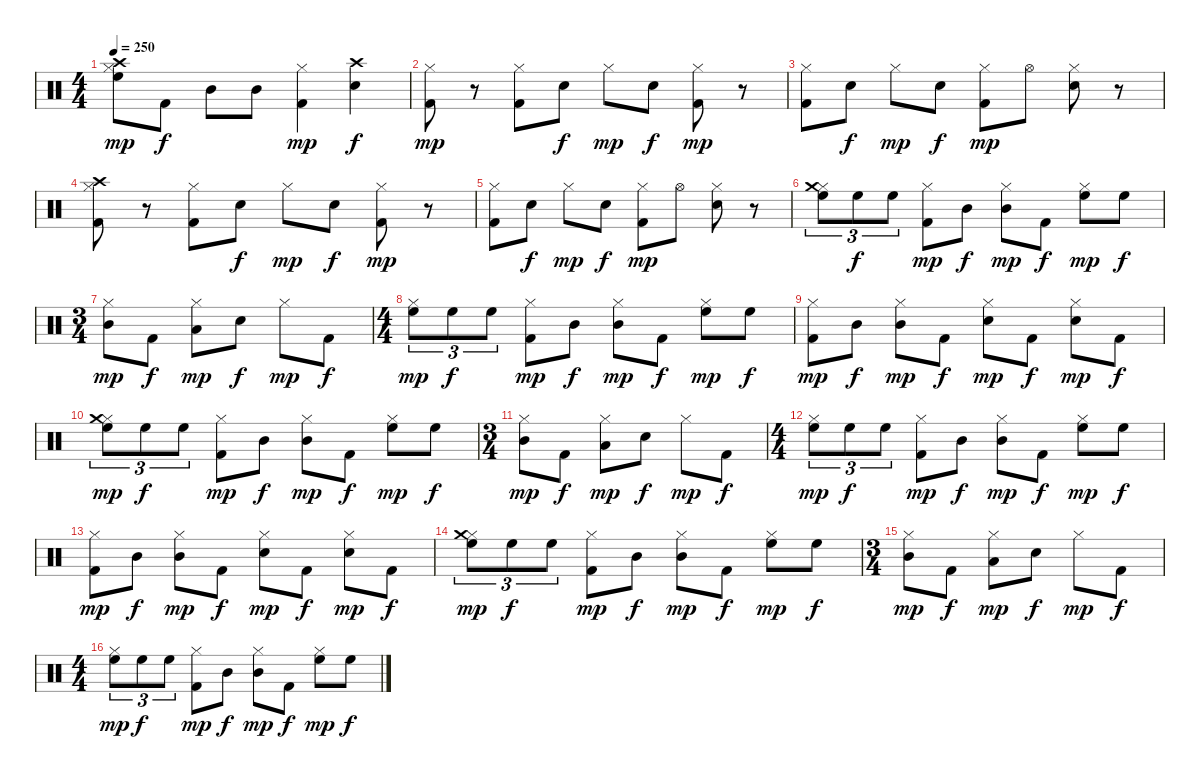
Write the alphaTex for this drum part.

\track "" {instrument percussion}
\staff {score}
\articulation defaults
\ts (4 4)
\tempo 250
\clef neutral
\ks c
("Hi-Hat (closed)" "High Floor Tom (hit)" "Crash high (hit)").8{dy mp} "Kick (hit) 2".8{dy f balance 8} "Mid Tom (hit)".8 "Mid Tom (hit)".8 ("Hi-Hat (closed)" "Kick (hit) 2").4{dy mp} ("Electric Snare (hit)" "Crash high (hit)").4{dy f} |
("Kick (hit) 2" "Hi-Hat (closed)").8{dy mp} r.8 ("Kick (hit) 2" "Hi-Hat (closed)").8 "Electric Snare (hit)".8{dy f} "Hi-Hat (closed)".8{dy mp} "Electric Snare (hit)".8{dy f} ("Kick (hit) 2" "Hi-Hat (closed)").8{dy mp} r.8 |
("Kick (hit) 2" "Hi-Hat (closed)").8 "Electric Snare (hit)".8{dy f} "Hi-Hat (closed)".8{dy mp} "Electric Snare (hit)".8{dy f} ("Kick (hit) 2" "Hi-Hat (closed)").8{dy mp} "Hi-Hat (open)".8 ("Electric Snare (hit)" "Hi-Hat (closed)").8 r.8 |
("Kick (hit) 2" "Hi-Hat (closed)" "Crash high (hit)").8 r.8 ("Kick (hit) 2" "Hi-Hat (closed)").8 "Electric Snare (hit)".8{dy f} "Hi-Hat (closed)".8{dy mp} "Electric Snare (hit)".8{dy f} ("Kick (hit) 2" "Hi-Hat (closed)").8{dy mp} r.8 |
("Kick (hit) 2" "Hi-Hat (closed)").8 "Electric Snare (hit)".8{dy f} "Hi-Hat (closed)".8{dy mp} "Electric Snare (hit)".8{dy f} ("Kick (hit) 2" "Hi-Hat (closed)").8{dy mp} "Hi-Hat (open)".8 ("Electric Snare (hit)" "Hi-Hat (closed)").8 r.8 |
("Hi-Hat (closed)" "High Floor Tom (hit)" "Crash medium (hit)").8{tu (3 2) balance 14} "High Floor Tom (hit)".8{tu (3 2) dy f} "High Floor Tom (hit)".8{tu (3 2)} ("Hi-Hat (closed)" "Kick (hit) 2").8{dy mp balance 8} "Mid Tom (hit)".8{dy f} ("Hi-Hat (closed)" "Mid Tom (hit)").8{dy mp} "Kick (hit) 2".8{dy f} ("Hi-Hat (closed)" "High Floor Tom (hit)").8{dy mp balance 14} "High Floor Tom (hit)".8{dy f} |
\ts (3 4)
("Hi-Hat (closed)" "Mid Tom (hit)").8{dy mp balance 8} "Kick (hit) 2".8{dy f} ("Hi-Hat (closed)" "Low Tom (hit)").8{dy mp balance 2} "Electric Snare (hit)".8{dy f balance 8} "Hi-Hat (closed)".8{dy mp} "Kick (hit) 2".8{dy f} |
\ts (4 4)
("Hi-Hat (closed)" "High Floor Tom (hit)").8{tu (3 2) dy mp balance 14} "High Floor Tom (hit)".8{tu (3 2) dy f} "High Floor Tom (hit)".8{tu (3 2)} ("Hi-Hat (closed)" "Kick (hit) 2").8{dy mp balance 8} "Mid Tom (hit)".8{dy f} ("Hi-Hat (closed)" "Mid Tom (hit)").8{dy mp} "Kick (hit) 2".8{dy f} ("Hi-Hat (closed)" "High Floor Tom (hit)").8{dy mp balance 14} "High Floor Tom (hit)".8{dy f} |
("Hi-Hat (closed)" "Kick (hit) 2").8{dy mp balance 8} "Mid Tom (hit)".8{dy f} ("Hi-Hat (closed)" "Mid Tom (hit)").8{dy mp} "Kick (hit) 2".8{dy f} ("Hi-Hat (closed)" "Electric Snare (hit)").8{dy mp} "Kick (hit) 2".8{dy f} ("Hi-Hat (closed)" "Electric Snare (hit)").8{dy mp} "Kick (hit) 2".8{dy f} |
("Hi-Hat (closed)" "High Floor Tom (hit)" "Crash medium (hit)").8{tu (3 2) dy mp balance 14} "High Floor Tom (hit)".8{tu (3 2) dy f} "High Floor Tom (hit)".8{tu (3 2)} ("Hi-Hat (closed)" "Kick (hit) 2").8{dy mp balance 8} "Mid Tom (hit)".8{dy f} ("Hi-Hat (closed)" "Mid Tom (hit)").8{dy mp} "Kick (hit) 2".8{dy f} ("Hi-Hat (closed)" "High Floor Tom (hit)").8{dy mp balance 14} "High Floor Tom (hit)".8{dy f} |
\ts (3 4)
("Hi-Hat (closed)" "Mid Tom (hit)").8{dy mp balance 8} "Kick (hit) 2".8{dy f} ("Hi-Hat (closed)" "Low Tom (hit)").8{dy mp balance 2} "Electric Snare (hit)".8{dy f balance 8} "Hi-Hat (closed)".8{dy mp} "Kick (hit) 2".8{dy f} |
\ts (4 4)
("Hi-Hat (closed)" "High Floor Tom (hit)").8{tu (3 2) dy mp balance 14} "High Floor Tom (hit)".8{tu (3 2) dy f} "High Floor Tom (hit)".8{tu (3 2)} ("Hi-Hat (closed)" "Kick (hit) 2").8{dy mp balance 8} "Mid Tom (hit)".8{dy f} ("Hi-Hat (closed)" "Mid Tom (hit)").8{dy mp} "Kick (hit) 2".8{dy f} ("Hi-Hat (closed)" "High Floor Tom (hit)").8{dy mp balance 14} "High Floor Tom (hit)".8{dy f} |
("Hi-Hat (closed)" "Kick (hit) 2").8{dy mp balance 8} "Mid Tom (hit)".8{dy f} ("Hi-Hat (closed)" "Mid Tom (hit)").8{dy mp} "Kick (hit) 2".8{dy f} ("Hi-Hat (closed)" "Electric Snare (hit)").8{dy mp} "Kick (hit) 2".8{dy f} ("Hi-Hat (closed)" "Electric Snare (hit)").8{dy mp} "Kick (hit) 2".8{dy f} |
("Hi-Hat (closed)" "High Floor Tom (hit)" "Crash medium (hit)").8{tu (3 2) dy mp balance 14} "High Floor Tom (hit)".8{tu (3 2) dy f} "High Floor Tom (hit)".8{tu (3 2)} ("Hi-Hat (closed)" "Kick (hit) 2").8{dy mp balance 8} "Mid Tom (hit)".8{dy f} ("Hi-Hat (closed)" "Mid Tom (hit)").8{dy mp} "Kick (hit) 2".8{dy f} ("Hi-Hat (closed)" "High Floor Tom (hit)").8{dy mp balance 14} "High Floor Tom (hit)".8{dy f} |
\ts (3 4)
("Hi-Hat (closed)" "Mid Tom (hit)").8{dy mp balance 8} "Kick (hit) 2".8{dy f} ("Hi-Hat (closed)" "Low Tom (hit)").8{dy mp balance 2} "Electric Snare (hit)".8{dy f balance 8} "Hi-Hat (closed)".8{dy mp} "Kick (hit) 2".8{dy f} |
\ts (4 4)
("Hi-Hat (closed)" "High Floor Tom (hit)").8{tu (3 2) dy mp balance 14} "High Floor Tom (hit)".8{tu (3 2) dy f} "High Floor Tom (hit)".8{tu (3 2)} ("Hi-Hat (closed)" "Kick (hit) 2").8{dy mp balance 8} "Mid Tom (hit)".8{dy f} ("Hi-Hat (closed)" "Mid Tom (hit)").8{dy mp} "Kick (hit) 2".8{dy f} ("Hi-Hat (closed)" "High Floor Tom (hit)").8{dy mp balance 14} "High Floor Tom (hit)".8{dy f}
